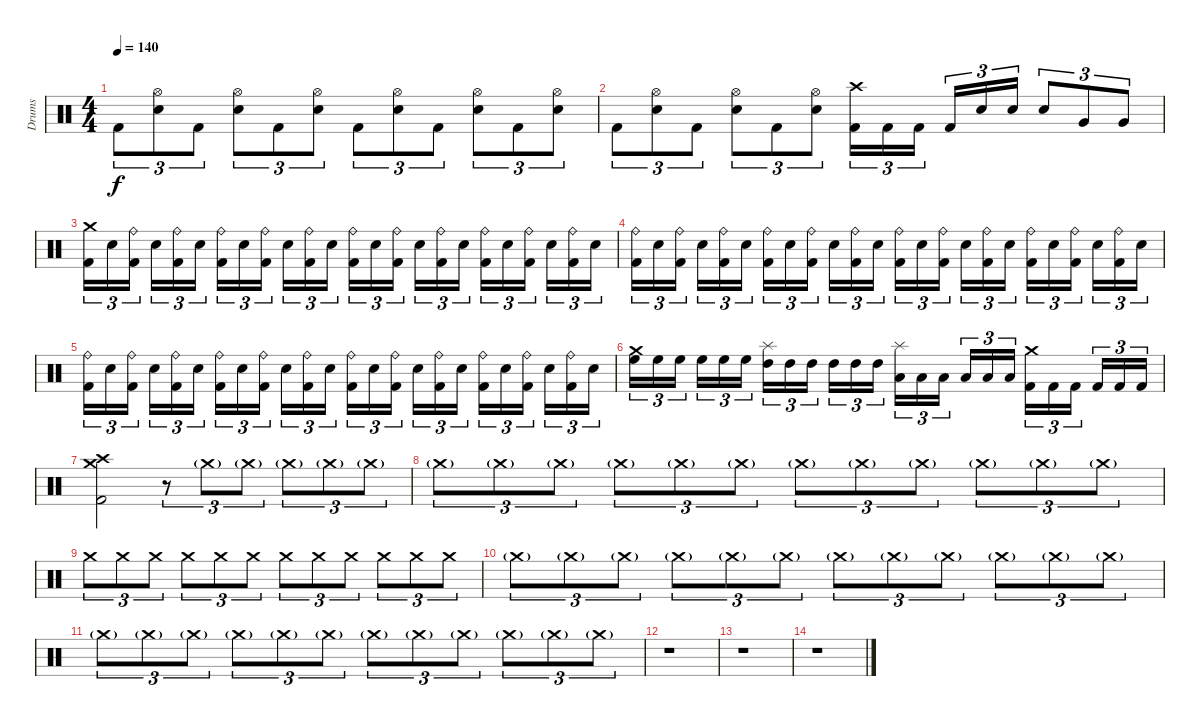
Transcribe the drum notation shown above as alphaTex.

\track ("Drums" "Drums") {instrument percussion}
\staff {score}
\articulation defaults
\ts (4 4)
\tempo 140
\clef neutral
\ks c "Kick (hit) 2".8{tu (3 2) dy f}
("Hi-Hat (open)" "Snare (hit) 2").8{tu (3 2)} "Kick (hit) 2".8{tu (3 2)} ("Hi-Hat (open)" "Snare (hit) 2").8{tu (3 2)} "Kick (hit) 2".8{tu (3 2)} ("Hi-Hat (open)" "Snare (hit) 2").8{tu (3 2)} "Kick (hit) 2".8{tu (3 2)} ("Hi-Hat (open)" "Snare (hit) 2").8{tu (3 2)} "Kick (hit) 2".8{tu (3 2)} ("Hi-Hat (open)" "Snare (hit) 2").8{tu (3 2)} "Kick (hit) 2".8{tu (3 2)} ("Hi-Hat (open)" "Snare (hit) 2").8{tu (3 2)} |
"Kick (hit) 2".8{tu (3 2)} ("Hi-Hat (open)" "Snare (hit) 2").8{tu (3 2)} "Kick (hit) 2".8{tu (3 2)} ("Hi-Hat (open)" "Snare (hit) 2").8{tu (3 2)} "Kick (hit) 2".8{tu (3 2)} ("Hi-Hat (open)" "Snare (hit) 2").8{tu (3 2)} ("Crash high (hit)" "Kick (hit) 2").16{tu (3 2)} "Kick (hit) 2".16{tu (3 2)} "Kick (hit) 2".16{tu (3 2)} "Kick (hit) 2".16{tu (3 2)} "Snare (hit) 2".16{tu (3 2)} "Snare (hit) 2".16{tu (3 2)} "Snare (hit) 2".8{tu (3 2)} "Very Low Tom (hit)".8{tu (3 2)} "Very Low Tom (hit)".8{tu (3 2)} |
("Crash medium (hit)" "Kick (hit) 2").16{tu (3 2)} "Snare (hit) 2".16{tu (3 2)} ("Ride (bell)" "Kick (hit) 2").16{tu (3 2)} "Snare (hit) 2".16{tu (3 2)} ("Ride (bell)" "Kick (hit) 2").16{tu (3 2)} "Snare (hit) 2".16{tu (3 2)} ("Ride (bell)" "Kick (hit) 2").16{tu (3 2)} "Snare (hit) 2".16{tu (3 2)} ("Ride (bell)" "Kick (hit) 2").16{tu (3 2)} "Snare (hit) 2".16{tu (3 2)} ("Ride (bell)" "Kick (hit) 2").16{tu (3 2)} "Snare (hit) 2".16{tu (3 2)} ("Ride (bell)" "Kick (hit) 2").16{tu (3 2)} "Snare (hit) 2".16{tu (3 2)} ("Ride (bell)" "Kick (hit) 2").16{tu (3 2)} "Snare (hit) 2".16{tu (3 2)} ("Ride (bell)" "Kick (hit) 2").16{tu (3 2)} "Snare (hit) 2".16{tu (3 2)} ("Ride (bell)" "Kick (hit) 2").16{tu (3 2)} "Snare (hit) 2".16{tu (3 2)} ("Ride (bell)" "Kick (hit) 2").16{tu (3 2)} "Snare (hit) 2".16{tu (3 2)} ("Ride (bell)" "Kick (hit) 2").16{tu (3 2)} "Snare (hit) 2".16{tu (3 2)} |
("Ride (bell)" "Kick (hit) 2").16{tu (3 2)} "Snare (hit) 2".16{tu (3 2)} ("Ride (bell)" "Kick (hit) 2").16{tu (3 2)} "Snare (hit) 2".16{tu (3 2)} ("Ride (bell)" "Kick (hit) 2").16{tu (3 2)} "Snare (hit) 2".16{tu (3 2)} ("Ride (bell)" "Kick (hit) 2").16{tu (3 2)} "Snare (hit) 2".16{tu (3 2)} ("Ride (bell)" "Kick (hit) 2").16{tu (3 2)} "Snare (hit) 2".16{tu (3 2)} ("Ride (bell)" "Kick (hit) 2").16{tu (3 2)} "Snare (hit) 2".16{tu (3 2)} ("Ride (bell)" "Kick (hit) 2").16{tu (3 2)} "Snare (hit) 2".16{tu (3 2)} ("Ride (bell)" "Kick (hit) 2").16{tu (3 2)} "Snare (hit) 2".16{tu (3 2)} ("Ride (bell)" "Kick (hit) 2").16{tu (3 2)} "Snare (hit) 2".16{tu (3 2)} ("Ride (bell)" "Kick (hit) 2").16{tu (3 2)} "Snare (hit) 2".16{tu (3 2)} ("Ride (bell)" "Kick (hit) 2").16{tu (3 2)} "Snare (hit) 2".16{tu (3 2)} ("Ride (bell)" "Kick (hit) 2").16{tu (3 2)} "Snare (hit) 2".16{tu (3 2)} |
("Ride (bell)" "Kick (hit) 2").16{tu (3 2)} "Snare (hit) 2".16{tu (3 2)} ("Ride (bell)" "Kick (hit) 2").16{tu (3 2)} "Snare (hit) 2".16{tu (3 2)} ("Ride (bell)" "Kick (hit) 2").16{tu (3 2)} "Snare (hit) 2".16{tu (3 2)} ("Ride (bell)" "Kick (hit) 2").16{tu (3 2)} "Snare (hit) 2".16{tu (3 2)} ("Ride (bell)" "Kick (hit) 2").16{tu (3 2)} "Snare (hit) 2".16{tu (3 2)} ("Ride (bell)" "Kick (hit) 2").16{tu (3 2)} "Snare (hit) 2".16{tu (3 2)} ("Ride (bell)" "Kick (hit) 2").16{tu (3 2)} "Snare (hit) 2".16{tu (3 2)} ("Ride (bell)" "Kick (hit) 2").16{tu (3 2)} "Snare (hit) 2".16{tu (3 2)} ("Ride (bell)" "Kick (hit) 2").16{tu (3 2)} "Snare (hit) 2".16{tu (3 2)} ("Ride (bell)" "Kick (hit) 2").16{tu (3 2)} "Snare (hit) 2".16{tu (3 2)} ("Ride (bell)" "Kick (hit) 2").16{tu (3 2)} "Snare (hit) 2".16{tu (3 2)} ("Ride (bell)" "Kick (hit) 2").16{tu (3 2)} "Snare (hit) 2".16{tu (3 2)} |
("Crash medium (hit)" "High Floor Tom (hit)").16{tu (3 2)} "High Floor Tom (hit)".16{tu (3 2)} "High Floor Tom (hit)".16{tu (3 2)} "High Floor Tom (hit)".16{tu (3 2)} "High Floor Tom (hit)".16{tu (3 2)} "High Floor Tom (hit)".16{tu (3 2)} ("Splash (hit)" "High Tom (hit)").16{tu (3 2)} "High Tom (hit)".16{tu (3 2)} "High Tom (hit)".16{tu (3 2)} "High Tom (hit)".16{tu (3 2)} "High Tom (hit)".16{tu (3 2)} "High Tom (hit)".16{tu (3 2)} ("Splash (hit)" "Low Tom (hit)").16{tu (3 2)} "Low Tom (hit)".16{tu (3 2)} "Low Tom (hit)".16{tu (3 2)} "Low Tom (hit)".16{tu (3 2)} "Low Tom (hit)".16{tu (3 2)} "Low Tom (hit)".16{tu (3 2)} ("Crash medium (hit)" "Kick (hit) 2").16{tu (3 2)} "Kick (hit) 2".16{tu (3 2)} "Kick (hit) 2".16{tu (3 2)} "Kick (hit) 2".16{tu (3 2)} "Kick (hit) 2".16{tu (3 2)} "Kick (hit) 2".16{tu (3 2)} |
("Crash high (hit)" "Crash medium (hit)" "Kick (hit) 2").2 r.8{tu (3 2)} "Crash medium (hit)"{g}.8{tu (3 2)} "Crash medium (hit)"{g}.8{tu (3 2)} "Crash medium (hit)"{g}.8{tu (3 2)} "Crash medium (hit)"{g}.8{tu (3 2)} "Crash medium (hit)"{g}.8{tu (3 2)} |
"Crash medium (hit)"{g}.8{tu (3 2)} "Crash medium (hit)"{g}.8{tu (3 2)} "Crash medium (hit)"{g}.8{tu (3 2)} "Crash medium (hit)"{g}.8{tu (3 2)} "Crash medium (hit)"{g}.8{tu (3 2)} "Crash medium (hit)"{g}.8{tu (3 2)} "Crash medium (hit)"{g}.8{tu (3 2)} "Crash medium (hit)"{g}.8{tu (3 2)} "Crash medium (hit)"{g}.8{tu (3 2)} "Crash medium (hit)"{g}.8{tu (3 2)} "Crash medium (hit)"{g}.8{tu (3 2)} "Crash medium (hit)"{g}.8{tu (3 2)} |
"Crash medium (hit)".8{tu (3 2)} "Crash medium (hit)".8{tu (3 2)} "Crash medium (hit)".8{tu (3 2)} "Crash medium (hit)".8{tu (3 2)} "Crash medium (hit)".8{tu (3 2)} "Crash medium (hit)".8{tu (3 2)} "Crash medium (hit)".8{tu (3 2)} "Crash medium (hit)".8{tu (3 2)} "Crash medium (hit)".8{tu (3 2)} "Crash medium (hit)".8{tu (3 2)} "Crash medium (hit)".8{tu (3 2)} "Crash medium (hit)".8{tu (3 2)} |
"Crash medium (hit)"{g}.8{tu (3 2)} "Crash medium (hit)"{g}.8{tu (3 2)} "Crash medium (hit)"{g}.8{tu (3 2)} "Crash medium (hit)"{g}.8{tu (3 2)} "Crash medium (hit)"{g}.8{tu (3 2)} "Crash medium (hit)"{g}.8{tu (3 2)} "Crash medium (hit)"{g}.8{tu (3 2)} "Crash medium (hit)"{g}.8{tu (3 2)} "Crash medium (hit)"{g}.8{tu (3 2)} "Crash medium (hit)"{g}.8{tu (3 2)} "Crash medium (hit)"{g}.8{tu (3 2)} "Crash medium (hit)"{g}.8{tu (3 2)} |
"Crash medium (hit)"{g}.8{tu (3 2)} "Crash medium (hit)"{g}.8{tu (3 2)} "Crash medium (hit)"{g}.8{tu (3 2)} "Crash medium (hit)"{g}.8{tu (3 2)} "Crash medium (hit)"{g}.8{tu (3 2)} "Crash medium (hit)"{g}.8{tu (3 2)} "Crash medium (hit)"{g}.8{tu (3 2)} "Crash medium (hit)"{g}.8{tu (3 2)} "Crash medium (hit)"{g}.8{tu (3 2)} "Crash medium (hit)"{g}.8{tu (3 2)} "Crash medium (hit)"{g}.8{tu (3 2)} "Crash medium (hit)"{g}.8{tu (3 2)} |
r.1 |
r.1 |
r.1
